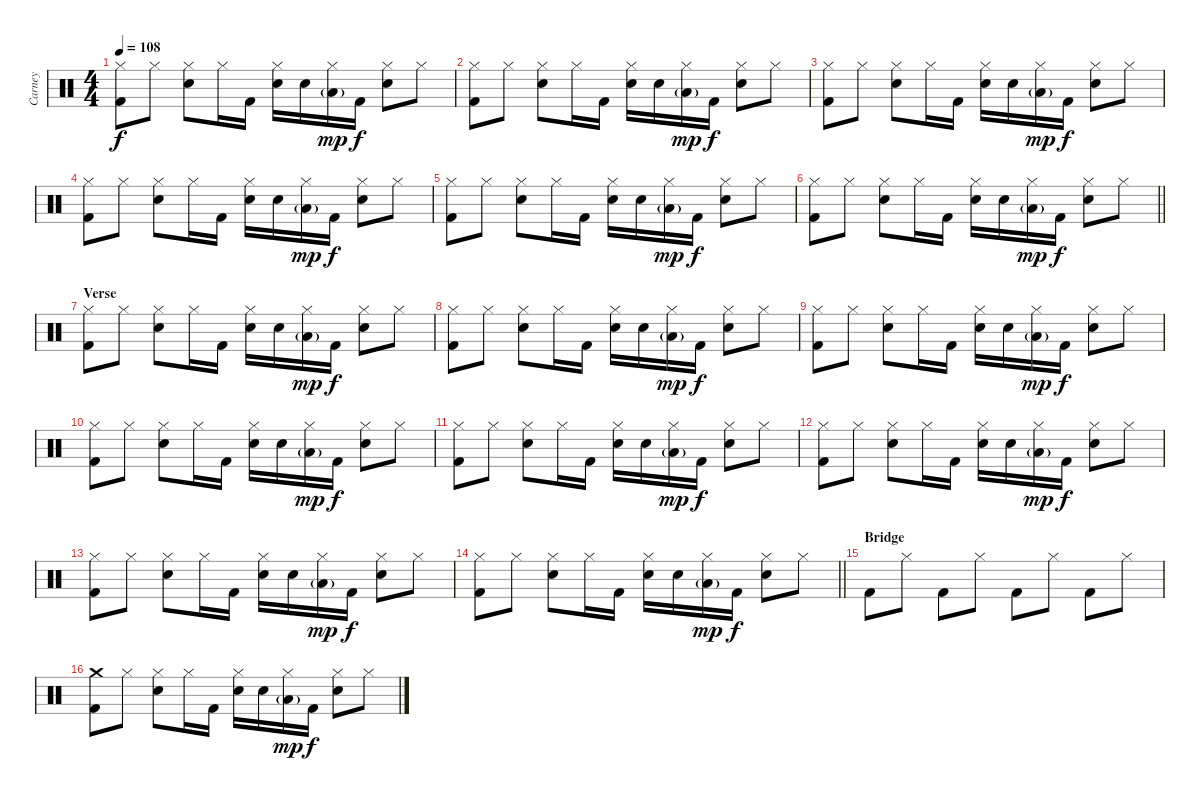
\track ("Carney" "Carney") {instrument percussion}
\staff {score}
\articulation defaults
\ts (4 4)
\tempo 108
\clef neutral
\ks c
("Hi-Hat (closed)" "Kick (hit) 2").8{dy f} "Hi-Hat (closed)".8 ("Hi-Hat (closed)" "Snare (hit) 2").8 "Hi-Hat (closed)".16 "Kick (hit) 2".16 ("Hi-Hat (closed)" "Snare (hit) 2").16 "Snare (hit) 2".16 ("Hi-Hat (closed)" "Low Floor Tom (hit)"{g}).16{dy mp} "Kick (hit) 2".16{dy f} ("Hi-Hat (closed)" "Snare (hit) 2").8 "Hi-Hat (closed)".8 |
("Hi-Hat (closed)" "Kick (hit) 2").8 "Hi-Hat (closed)".8 ("Hi-Hat (closed)" "Snare (hit) 2").8 "Hi-Hat (closed)".16 "Kick (hit) 2".16 ("Hi-Hat (closed)" "Snare (hit) 2").16 "Snare (hit) 2".16 ("Hi-Hat (closed)" "Low Floor Tom (hit)"{g}).16{dy mp} "Kick (hit) 2".16{dy f} ("Hi-Hat (closed)" "Snare (hit) 2").8 "Hi-Hat (closed)".8 |
("Hi-Hat (closed)" "Kick (hit) 2").8 "Hi-Hat (closed)".8 ("Hi-Hat (closed)" "Snare (hit) 2").8 "Hi-Hat (closed)".16 "Kick (hit) 2".16 ("Hi-Hat (closed)" "Snare (hit) 2").16 "Snare (hit) 2".16 ("Hi-Hat (closed)" "Low Floor Tom (hit)"{g}).16{dy mp} "Kick (hit) 2".16{dy f} ("Hi-Hat (closed)" "Snare (hit) 2").8 "Hi-Hat (closed)".8 |
("Hi-Hat (closed)" "Kick (hit) 2").8 "Hi-Hat (closed)".8 ("Hi-Hat (closed)" "Snare (hit) 2").8 "Hi-Hat (closed)".16 "Kick (hit) 2".16 ("Hi-Hat (closed)" "Snare (hit) 2").16 "Snare (hit) 2".16 ("Hi-Hat (closed)" "Low Floor Tom (hit)"{g}).16{dy mp} "Kick (hit) 2".16{dy f} ("Hi-Hat (closed)" "Snare (hit) 2").8 "Hi-Hat (closed)".8 |
("Hi-Hat (closed)" "Kick (hit) 2").8 "Hi-Hat (closed)".8 ("Hi-Hat (closed)" "Snare (hit) 2").8 "Hi-Hat (closed)".16 "Kick (hit) 2".16 ("Hi-Hat (closed)" "Snare (hit) 2").16 "Snare (hit) 2".16 ("Hi-Hat (closed)" "Low Floor Tom (hit)"{g}).16{dy mp} "Kick (hit) 2".16{dy f} ("Hi-Hat (closed)" "Snare (hit) 2").8 "Hi-Hat (closed)".8 |
\barLineRight lightlight
("Hi-Hat (closed)" "Kick (hit) 2").8 "Hi-Hat (closed)".8 ("Hi-Hat (closed)" "Snare (hit) 2").8 "Hi-Hat (closed)".16 "Kick (hit) 2".16 ("Hi-Hat (closed)" "Snare (hit) 2").16 "Snare (hit) 2".16 ("Hi-Hat (closed)" "Low Floor Tom (hit)"{g}).16{dy mp} "Kick (hit) 2".16{dy f} ("Hi-Hat (closed)" "Snare (hit) 2").8 "Hi-Hat (closed)".8 |
\section ("" "Verse")
("Hi-Hat (closed)" "Kick (hit) 2").8 "Hi-Hat (closed)".8 ("Hi-Hat (closed)" "Snare (hit) 2").8 "Hi-Hat (closed)".16 "Kick (hit) 2".16 ("Hi-Hat (closed)" "Snare (hit) 2").16 "Snare (hit) 2".16 ("Hi-Hat (closed)" "Low Floor Tom (hit)"{g}).16{dy mp} "Kick (hit) 2".16{dy f} ("Hi-Hat (closed)" "Snare (hit) 2").8 "Hi-Hat (closed)".8 |
("Hi-Hat (closed)" "Kick (hit) 2").8 "Hi-Hat (closed)".8 ("Hi-Hat (closed)" "Snare (hit) 2").8 "Hi-Hat (closed)".16 "Kick (hit) 2".16 ("Hi-Hat (closed)" "Snare (hit) 2").16 "Snare (hit) 2".16 ("Hi-Hat (closed)" "Low Floor Tom (hit)"{g}).16{dy mp} "Kick (hit) 2".16{dy f} ("Hi-Hat (closed)" "Snare (hit) 2").8 "Hi-Hat (closed)".8 |
("Hi-Hat (closed)" "Kick (hit) 2").8 "Hi-Hat (closed)".8 ("Hi-Hat (closed)" "Snare (hit) 2").8 "Hi-Hat (closed)".16 "Kick (hit) 2".16 ("Hi-Hat (closed)" "Snare (hit) 2").16 "Snare (hit) 2".16 ("Hi-Hat (closed)" "Low Floor Tom (hit)"{g}).16{dy mp} "Kick (hit) 2".16{dy f} ("Hi-Hat (closed)" "Snare (hit) 2").8 "Hi-Hat (closed)".8 |
("Hi-Hat (closed)" "Kick (hit) 2").8 "Hi-Hat (closed)".8 ("Hi-Hat (closed)" "Snare (hit) 2").8 "Hi-Hat (closed)".16 "Kick (hit) 2".16 ("Hi-Hat (closed)" "Snare (hit) 2").16 "Snare (hit) 2".16 ("Hi-Hat (closed)" "Low Floor Tom (hit)"{g}).16{dy mp} "Kick (hit) 2".16{dy f} ("Hi-Hat (closed)" "Snare (hit) 2").8 "Hi-Hat (closed)".8 |
("Hi-Hat (closed)" "Kick (hit) 2").8 "Hi-Hat (closed)".8 ("Hi-Hat (closed)" "Snare (hit) 2").8 "Hi-Hat (closed)".16 "Kick (hit) 2".16 ("Hi-Hat (closed)" "Snare (hit) 2").16 "Snare (hit) 2".16 ("Hi-Hat (closed)" "Low Floor Tom (hit)"{g}).16{dy mp} "Kick (hit) 2".16{dy f} ("Hi-Hat (closed)" "Snare (hit) 2").8 "Hi-Hat (closed)".8 |
("Hi-Hat (closed)" "Kick (hit) 2").8 "Hi-Hat (closed)".8 ("Hi-Hat (closed)" "Snare (hit) 2").8 "Hi-Hat (closed)".16 "Kick (hit) 2".16 ("Hi-Hat (closed)" "Snare (hit) 2").16 "Snare (hit) 2".16 ("Hi-Hat (closed)" "Low Floor Tom (hit)"{g}).16{dy mp} "Kick (hit) 2".16{dy f} ("Hi-Hat (closed)" "Snare (hit) 2").8 "Hi-Hat (closed)".8 |
("Hi-Hat (closed)" "Kick (hit) 2").8 "Hi-Hat (closed)".8 ("Hi-Hat (closed)" "Snare (hit) 2").8 "Hi-Hat (closed)".16 "Kick (hit) 2".16 ("Hi-Hat (closed)" "Snare (hit) 2").16 "Snare (hit) 2".16 ("Hi-Hat (closed)" "Low Floor Tom (hit)"{g}).16{dy mp} "Kick (hit) 2".16{dy f} ("Hi-Hat (closed)" "Snare (hit) 2").8 "Hi-Hat (closed)".8 |
\barLineRight lightlight
("Hi-Hat (closed)" "Kick (hit) 2").8 "Hi-Hat (closed)".8 ("Hi-Hat (closed)" "Snare (hit) 2").8 "Hi-Hat (closed)".16 "Kick (hit) 2".16 ("Hi-Hat (closed)" "Snare (hit) 2").16 "Snare (hit) 2".16 ("Hi-Hat (closed)" "Low Floor Tom (hit)"{g}).16{dy mp} "Kick (hit) 2".16{dy f} ("Hi-Hat (closed)" "Snare (hit) 2").8 "Hi-Hat (closed)".8 |
\section ("" "Bridge")
"Kick (hit) 2".8 "Hi-Hat (closed)".8 "Kick (hit) 2".8 "Hi-Hat (closed)".8 "Kick (hit) 2".8 "Hi-Hat (closed)".8 "Kick (hit) 2".8 "Hi-Hat (closed)".8 |
("Crash medium (hit)" "Kick (hit) 2").8 "Hi-Hat (closed)".8 ("Hi-Hat (closed)" "Snare (hit) 2").8 "Hi-Hat (closed)".16 "Kick (hit) 2".16 ("Hi-Hat (closed)" "Snare (hit) 2").16 "Snare (hit) 2".16 ("Hi-Hat (closed)" "Low Floor Tom (hit)"{g}).16{dy mp} "Kick (hit) 2".16{dy f} ("Hi-Hat (closed)" "Snare (hit) 2").8 "Hi-Hat (closed)".8
